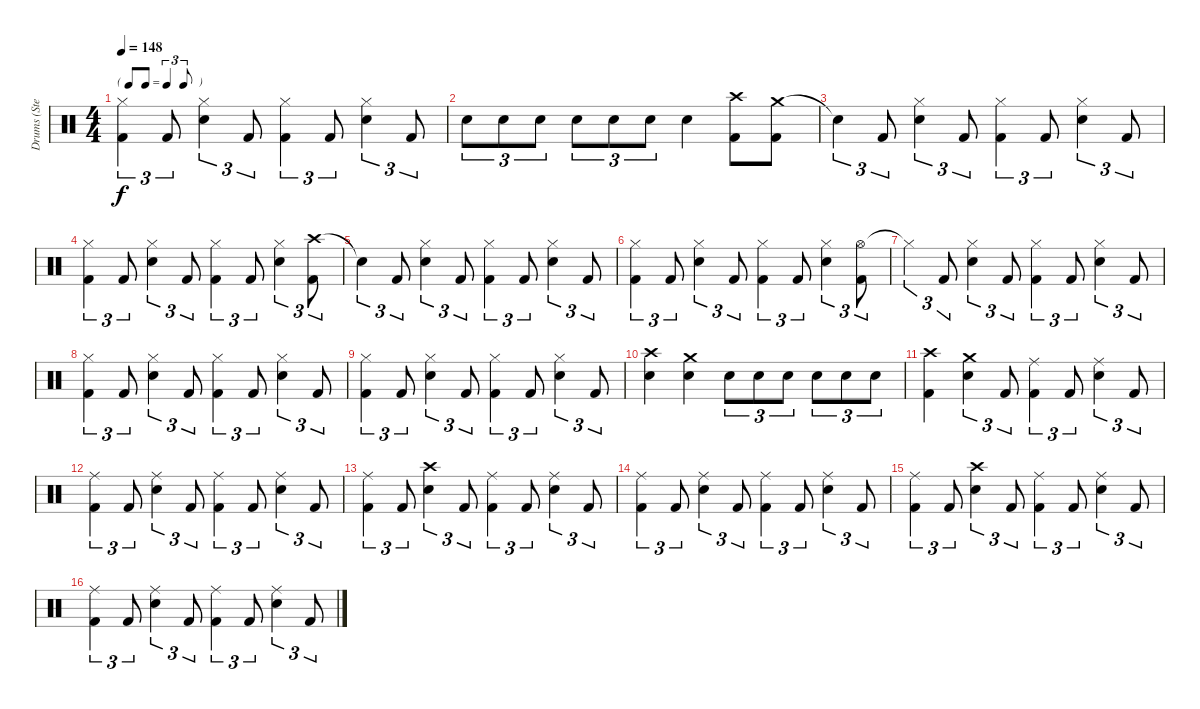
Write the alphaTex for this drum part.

\track ("Drums (Steven)" "Drums (Ste") {instrument percussion}
\staff {score}
\articulation defaults
\ts (4 4)
\tf triplet8th
\tempo 148
\clef neutral
\ks c
("Hi-Hat (closed)" "Kick (hit) 2").4{tu (3 2) dy f} "Kick (hit) 2".8{tu (3 2)} ("Hi-Hat (closed)" "Snare (hit) 2").4{tu (3 2)} "Kick (hit) 2".8{tu (3 2)} ("Hi-Hat (closed)" "Kick (hit) 2").4{tu (3 2)} "Kick (hit) 2".8{tu (3 2)} ("Hi-Hat (closed)" "Snare (hit) 2").4{tu (3 2)} "Kick (hit) 2".8{tu (3 2)} |
"Snare (hit) 2".8{tu (3 2)} "Snare (hit) 2".8{tu (3 2)} "Snare (hit) 2".8{tu (3 2)} "Snare (hit) 2".8{tu (3 2)} "Snare (hit) 2".8{tu (3 2)} "Snare (hit) 2".8{tu (3 2)} "Snare (hit) 2".4 ("Crash high (hit)" "Kick (hit) 2").8 ("Crash medium (hit)" "Kick (hit) 2").8 |
"Snare (hit)"{t}.4{tu (3 2)} "Kick (hit) 2".8{tu (3 2)} ("Hi-Hat (closed)" "Snare (hit) 2").4{tu (3 2)} "Kick (hit) 2".8{tu (3 2)} ("Hi-Hat (closed)" "Kick (hit) 2").4{tu (3 2)} "Kick (hit) 2".8{tu (3 2)} ("Hi-Hat (closed)" "Snare (hit) 2").4{tu (3 2)} "Kick (hit) 2".8{tu (3 2)} |
("Hi-Hat (closed)" "Kick (hit) 2").4{tu (3 2)} "Kick (hit) 2".8{tu (3 2)} ("Hi-Hat (closed)" "Snare (hit) 2").4{tu (3 2)} "Kick (hit) 2".8{tu (3 2)} ("Hi-Hat (closed)" "Kick (hit) 2").4{tu (3 2)} "Kick (hit) 2".8{tu (3 2)} ("Hi-Hat (closed)" "Snare (hit) 2").4{tu (3 2)} ("Crash high (hit)" "Kick (hit) 2").8{tu (3 2)} |
"Snare (hit)"{t}.4{tu (3 2)} "Kick (hit) 2".8{tu (3 2)} ("Hi-Hat (closed)" "Snare (hit) 2").4{tu (3 2)} "Kick (hit) 2".8{tu (3 2)} ("Hi-Hat (closed)" "Kick (hit) 2").4{tu (3 2)} "Kick (hit) 2".8{tu (3 2)} ("Hi-Hat (closed)" "Snare (hit) 2").4{tu (3 2)} "Kick (hit) 2".8{tu (3 2)} |
("Hi-Hat (closed)" "Kick (hit) 2").4{tu (3 2)} "Kick (hit) 2".8{tu (3 2)} ("Hi-Hat (closed)" "Snare (hit) 2").4{tu (3 2)} "Kick (hit) 2".8{tu (3 2)} ("Hi-Hat (closed)" "Kick (hit) 2").4{tu (3 2)} "Kick (hit) 2".8{tu (3 2)} ("Hi-Hat (closed)" "Snare (hit) 2").4{tu (3 2)} ("Hi-Hat (open)" "Kick (hit) 2").8{tu (3 2)} |
"Hi-Hat (closed)"{t}.4{tu (3 2)} "Kick (hit) 2".8{tu (3 2)} ("Hi-Hat (closed)" "Snare (hit) 2").4{tu (3 2)} "Kick (hit) 2".8{tu (3 2)} ("Hi-Hat (closed)" "Kick (hit) 2").4{tu (3 2)} "Kick (hit) 2".8{tu (3 2)} ("Hi-Hat (closed)" "Snare (hit) 2").4{tu (3 2)} "Kick (hit) 2".8{tu (3 2)} |
("Hi-Hat (closed)" "Kick (hit) 2").4{tu (3 2)} "Kick (hit) 2".8{tu (3 2)} ("Hi-Hat (closed)" "Snare (hit) 2").4{tu (3 2)} "Kick (hit) 2".8{tu (3 2)} ("Hi-Hat (closed)" "Kick (hit) 2").4{tu (3 2)} "Kick (hit) 2".8{tu (3 2)} ("Hi-Hat (closed)" "Snare (hit) 2").4{tu (3 2)} "Kick (hit) 2".8{tu (3 2)} |
("Hi-Hat (closed)" "Kick (hit) 2").4{tu (3 2)} "Kick (hit) 2".8{tu (3 2)} ("Hi-Hat (closed)" "Snare (hit) 2").4{tu (3 2)} "Kick (hit) 2".8{tu (3 2)} ("Hi-Hat (closed)" "Kick (hit) 2").4{tu (3 2)} "Kick (hit) 2".8{tu (3 2)} ("Hi-Hat (closed)" "Snare (hit) 2").4{tu (3 2)} "Kick (hit) 2".8{tu (3 2)} |
("Crash high (hit)" "Snare (hit) 2").4 ("Crash medium (hit)" "Snare (hit) 2").4 "Snare (hit) 2".8{tu (3 2)} "Snare (hit) 2".8{tu (3 2)} "Snare (hit) 2".8{tu (3 2)} "Snare (hit) 2".8{tu (3 2)} "Snare (hit) 2".8{tu (3 2)} "Snare (hit) 2".8{tu (3 2)} |
("Crash high (hit)" "Kick (hit) 2").4 ("Crash medium (hit)" "Snare (hit) 2").4{tu (3 2)} "Kick (hit) 2".8{tu (3 2)} ("Ride (middle)" "Kick (hit) 2").4{tu (3 2)} "Kick (hit) 2".8{tu (3 2)} ("Ride (middle)" "Snare (hit) 2").4{tu (3 2)} "Kick (hit) 2".8{tu (3 2)} |
("Ride (middle)" "Kick (hit) 2").4{tu (3 2)} "Kick (hit) 2".8{tu (3 2)} ("Ride (middle)" "Snare (hit) 2").4{tu (3 2)} "Kick (hit) 2".8{tu (3 2)} ("Ride (middle)" "Kick (hit) 2").4{tu (3 2)} "Kick (hit) 2".8{tu (3 2)} ("Ride (middle)" "Snare (hit) 2").4{tu (3 2)} "Kick (hit) 2".8{tu (3 2)} |
("Ride (middle)" "Kick (hit) 2").4{tu (3 2)} "Kick (hit) 2".8{tu (3 2)} ("Crash high (hit)" "Snare (hit) 2").4{tu (3 2)} "Kick (hit) 2".8{tu (3 2)} ("Ride (middle)" "Kick (hit) 2").4{tu (3 2)} "Kick (hit) 2".8{tu (3 2)} ("Ride (middle)" "Snare (hit) 2").4{tu (3 2)} "Kick (hit) 2".8{tu (3 2)} |
("Ride (middle)" "Kick (hit) 2").4{tu (3 2)} "Kick (hit) 2".8{tu (3 2)} ("Ride (middle)" "Snare (hit) 2").4{tu (3 2)} "Kick (hit) 2".8{tu (3 2)} ("Ride (middle)" "Kick (hit) 2").4{tu (3 2)} "Kick (hit) 2".8{tu (3 2)} ("Ride (middle)" "Snare (hit) 2").4{tu (3 2)} "Kick (hit) 2".8{tu (3 2)} |
("Ride (middle)" "Kick (hit) 2").4{tu (3 2)} "Kick (hit) 2".8{tu (3 2)} ("Crash high (hit)" "Snare (hit) 2").4{tu (3 2)} "Kick (hit) 2".8{tu (3 2)} ("Ride (middle)" "Kick (hit) 2").4{tu (3 2)} "Kick (hit) 2".8{tu (3 2)} ("Ride (middle)" "Snare (hit) 2").4{tu (3 2)} "Kick (hit) 2".8{tu (3 2)} |
("Ride (middle)" "Kick (hit) 2").4{tu (3 2)} "Kick (hit) 2".8{tu (3 2)} ("Ride (middle)" "Snare (hit) 2").4{tu (3 2)} "Kick (hit) 2".8{tu (3 2)} ("Ride (middle)" "Kick (hit) 2").4{tu (3 2)} "Kick (hit) 2".8{tu (3 2)} ("Ride (middle)" "Snare (hit) 2").4{tu (3 2)} "Kick (hit) 2".8{tu (3 2)}
